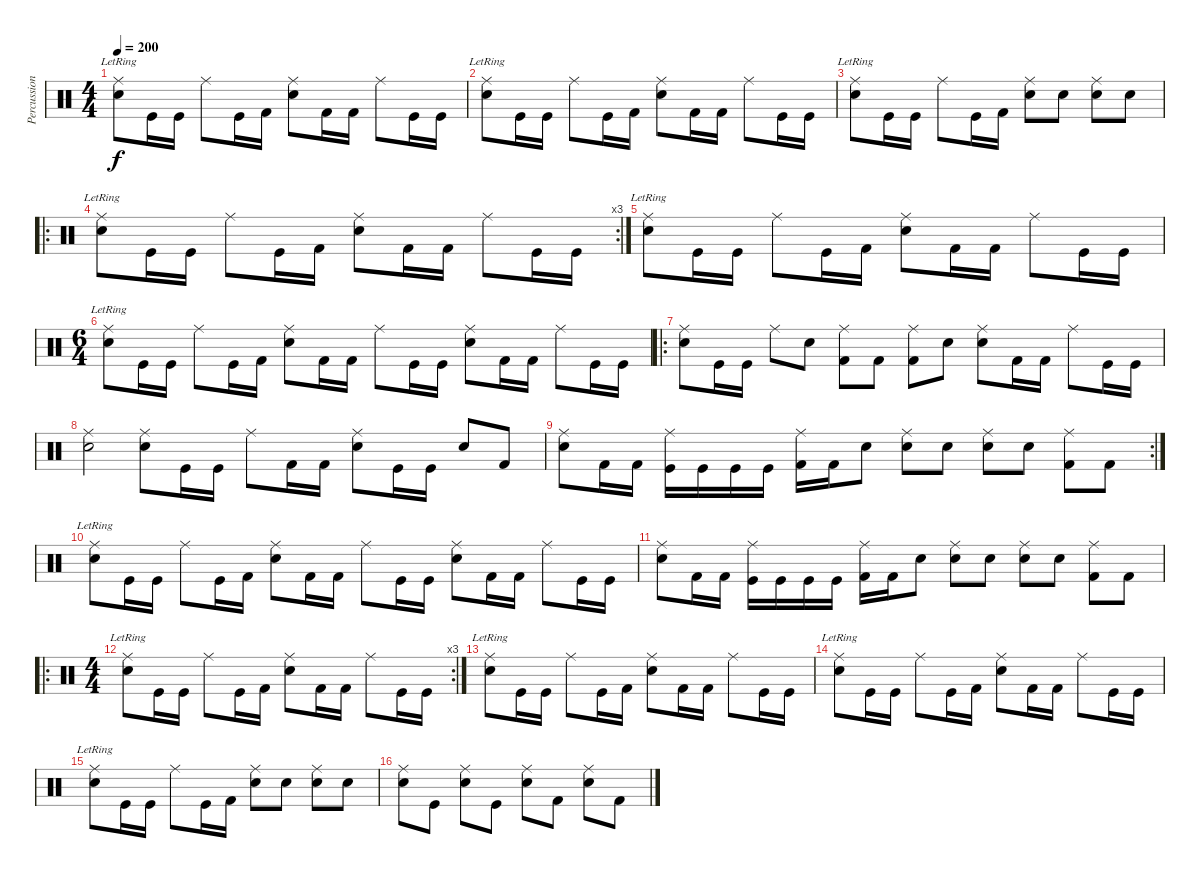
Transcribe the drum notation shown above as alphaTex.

\track ("Percussion" "Percussion") {instrument percussion}
\staff {score}
\articulation defaults
\ts (4 4)
\tempo 200
\clef neutral
\ks c
("Ride (middle)"{lr} "Electric Snare (hit)").8{dy f} "Kick (hit)".16 "Kick (hit)".16 "Ride (middle)".8 "Kick (hit)".16 "Kick (hit) 2".16 ("Ride (middle)" "Electric Snare (hit)").8 "Kick (hit) 2".16 "Kick (hit) 2".16 "Ride (middle)".8 "Kick (hit)".16 "Kick (hit)".16 |
("Ride (middle)"{lr} "Electric Snare (hit)").8 "Kick (hit)".16 "Kick (hit)".16 "Ride (middle)".8 "Kick (hit)".16 "Kick (hit) 2".16 ("Ride (middle)" "Electric Snare (hit)").8 "Kick (hit) 2".16 "Kick (hit) 2".16 "Ride (middle)".8 "Kick (hit)".16 "Kick (hit)".16 |
("Ride (middle)"{lr} "Electric Snare (hit)").8 "Kick (hit)".16 "Kick (hit)".16 "Ride (middle)".8 "Kick (hit)".16 "Kick (hit) 2".16 ("Ride (middle)" "Electric Snare (hit)").8 "Electric Snare (hit)".8 ("Ride (middle)" "Electric Snare (hit)").8 "Electric Snare (hit)".8 |
\ro
\rc 3
("Ride (middle)"{lr} "Electric Snare (hit)").8 "Kick (hit)".16 "Kick (hit)".16 "Ride (middle)".8 "Kick (hit)".16 "Kick (hit) 2".16 ("Ride (middle)" "Electric Snare (hit)").8 "Kick (hit) 2".16 "Kick (hit) 2".16 "Ride (middle)".8 "Kick (hit)".16 "Kick (hit)".16 |
("Ride (middle)"{lr} "Electric Snare (hit)").8 "Kick (hit)".16 "Kick (hit)".16 "Ride (middle)".8 "Kick (hit)".16 "Kick (hit) 2".16 ("Ride (middle)" "Electric Snare (hit)").8 "Kick (hit) 2".16 "Kick (hit) 2".16 "Ride (middle)".8 "Kick (hit)".16 "Kick (hit)".16 |
\ts (6 4)
("Ride (middle)"{lr} "Electric Snare (hit)").8 "Kick (hit)".16 "Kick (hit)".16 "Ride (middle)".8 "Kick (hit)".16 "Kick (hit) 2".16 ("Ride (middle)" "Electric Snare (hit)").8 "Kick (hit) 2".16 "Kick (hit) 2".16 "Ride (middle)".8 "Kick (hit)".16 "Kick (hit)".16 ("Ride (middle)" "Electric Snare (hit)").8 "Kick (hit) 2".16 "Kick (hit) 2".16 "Ride (middle)".8 "Kick (hit)".16 "Kick (hit)".16 |
\ro
("Ride (middle)" "Electric Snare (hit)").8 "Kick (hit)".16 "Kick (hit)".16 "Ride (middle)".8 "Electric Snare (hit)".8 ("Ride (middle)" "Kick (hit) 2").8 "Kick (hit) 2".8 ("Ride (middle)" "Kick (hit) 2").8 "Electric Snare (hit)".8 ("Ride (middle)" "Electric Snare (hit)").8 "Kick (hit) 2".16 "Kick (hit) 2".16 "Ride (middle)".8 "Kick (hit)".16 "Kick (hit)".16 |
("Ride (middle)" "Electric Snare (hit)").2 ("Ride (middle)" "Electric Snare (hit)").8 "Kick (hit)".16 "Kick (hit)".16 "Ride (middle)".8 "Kick (hit) 2".16 "Kick (hit) 2".16 ("Ride (middle)" "Electric Snare (hit)").8 "Kick (hit)".16 "Kick (hit)".16 "Electric Snare (hit)".8 "Kick (hit) 2".8 |
\rc 2
("Ride (middle)" "Electric Snare (hit)").8 "Kick (hit) 2".16 "Kick (hit) 2".16 ("Ride (middle)" "Kick (hit)").16 "Kick (hit)".16 "Kick (hit)".16 "Kick (hit)".16 ("Ride (middle)" "Kick (hit) 2").16 "Kick (hit) 2".16 "Electric Snare (hit)".8 ("Ride (middle)" "Electric Snare (hit)").8 "Electric Snare (hit)".8 ("Ride (middle)" "Electric Snare (hit)").8 "Electric Snare (hit)".8 ("Ride (middle)" "Kick (hit) 2").8 "Kick (hit) 2".8 |
("Ride (middle)"{lr} "Electric Snare (hit)").8 "Kick (hit)".16 "Kick (hit)".16 "Ride (middle)".8 "Kick (hit)".16 "Kick (hit) 2".16 ("Ride (middle)" "Electric Snare (hit)").8 "Kick (hit) 2".16 "Kick (hit) 2".16 "Ride (middle)".8 "Kick (hit)".16 "Kick (hit)".16 ("Ride (middle)" "Electric Snare (hit)").8 "Kick (hit) 2".16 "Kick (hit) 2".16 "Ride (middle)".8 "Kick (hit)".16 "Kick (hit)".16 |
("Ride (middle)" "Electric Snare (hit)").8 "Kick (hit) 2".16 "Kick (hit) 2".16 ("Ride (middle)" "Kick (hit)").16 "Kick (hit)".16 "Kick (hit)".16 "Kick (hit)".16 ("Ride (middle)" "Kick (hit) 2").16 "Kick (hit) 2".16 "Electric Snare (hit)".8 ("Ride (middle)" "Electric Snare (hit)").8 "Electric Snare (hit)".8 ("Ride (middle)" "Electric Snare (hit)").8 "Electric Snare (hit)".8 ("Ride (middle)" "Kick (hit) 2").8 "Kick (hit) 2".8 |
\ro
\rc 3
\ts (4 4)
("Ride (middle)"{lr} "Electric Snare (hit)").8 "Kick (hit)".16 "Kick (hit)".16 "Ride (middle)".8 "Kick (hit)".16 "Kick (hit) 2".16 ("Ride (middle)" "Electric Snare (hit)").8 "Kick (hit) 2".16 "Kick (hit) 2".16 "Ride (middle)".8 "Kick (hit)".16 "Kick (hit)".16 |
("Ride (middle)"{lr} "Electric Snare (hit)").8 "Kick (hit)".16 "Kick (hit)".16 "Ride (middle)".8 "Kick (hit)".16 "Kick (hit) 2".16 ("Ride (middle)" "Electric Snare (hit)").8 "Kick (hit) 2".16 "Kick (hit) 2".16 "Ride (middle)".8 "Kick (hit)".16 "Kick (hit)".16 |
("Ride (middle)"{lr} "Electric Snare (hit)").8 "Kick (hit)".16 "Kick (hit)".16 "Ride (middle)".8 "Kick (hit)".16 "Kick (hit) 2".16 ("Ride (middle)" "Electric Snare (hit)").8 "Kick (hit) 2".16 "Kick (hit) 2".16 "Ride (middle)".8 "Kick (hit)".16 "Kick (hit)".16 |
("Ride (middle)"{lr} "Electric Snare (hit)").8 "Kick (hit)".16 "Kick (hit)".16 "Ride (middle)".8 "Kick (hit)".16 "Kick (hit) 2".16 ("Ride (middle)" "Electric Snare (hit)").8 "Electric Snare (hit)".8 ("Ride (middle)" "Electric Snare (hit)").8 "Electric Snare (hit)".8 |
("Ride (middle)" "Electric Snare (hit)").8 "Kick (hit)".8 ("Ride (middle)" "Electric Snare (hit)").8 "Kick (hit)".8 ("Ride (middle)" "Electric Snare (hit)").8 "Kick (hit) 2".8 ("Ride (middle)" "Electric Snare (hit)").8 "Kick (hit) 2".8
